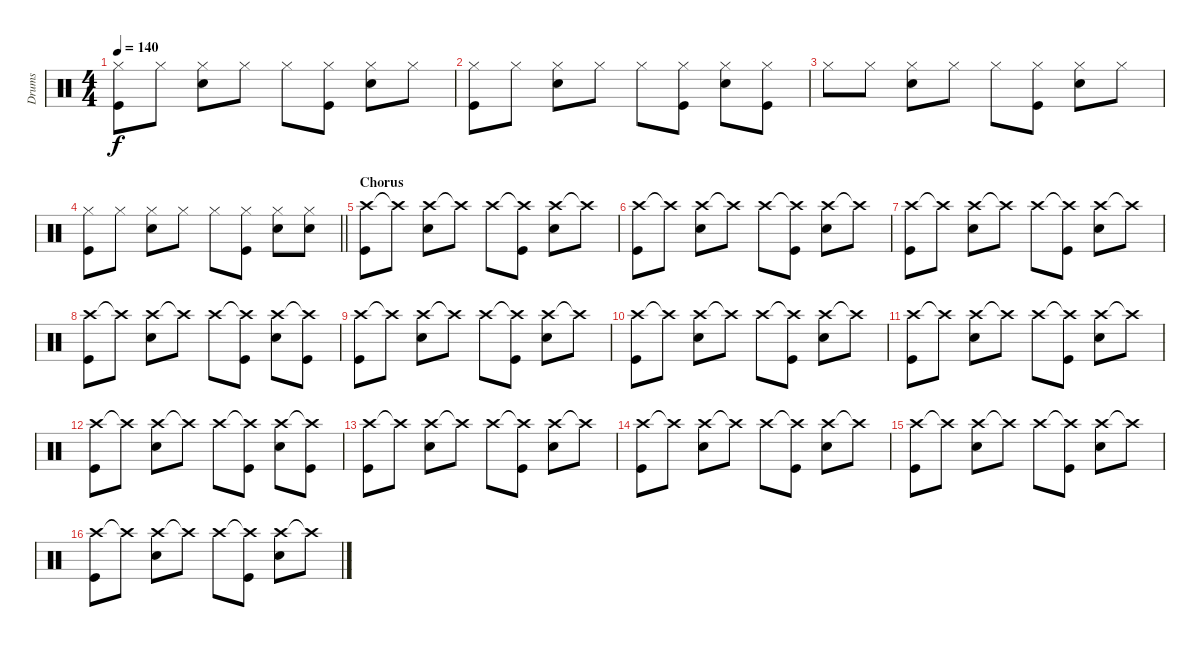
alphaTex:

\track ("Drums" "Drums") {instrument percussion}
\staff {score}
\articulation defaults
\ts (4 4)
\tempo 140
\clef neutral
\ks c
("Hi-Hat (closed)" "Kick (hit)").8{dy f} "Hi-Hat (closed)".8 ("Hi-Hat (closed)" "Electric Snare (hit)").8 "Hi-Hat (closed)".8 "Hi-Hat (closed)".8 ("Hi-Hat (closed)" "Kick (hit)").8 ("Hi-Hat (closed)" "Electric Snare (hit)").8 "Hi-Hat (closed)".8 |
("Hi-Hat (closed)" "Kick (hit)").8 "Hi-Hat (closed)".8 ("Hi-Hat (closed)" "Electric Snare (hit)").8 "Hi-Hat (closed)".8 "Hi-Hat (closed)".8 ("Hi-Hat (closed)" "Kick (hit)").8 ("Hi-Hat (closed)" "Electric Snare (hit)").8 ("Hi-Hat (closed)" "Kick (hit)").8 |
"Hi-Hat (closed)".8 "Hi-Hat (closed)".8 ("Hi-Hat (closed)" "Electric Snare (hit)").8 "Hi-Hat (closed)".8 "Hi-Hat (closed)".8 ("Hi-Hat (closed)" "Kick (hit)").8 ("Hi-Hat (closed)" "Electric Snare (hit)").8 "Hi-Hat (closed)".8 |
\barLineRight lightlight
("Hi-Hat (closed)" "Kick (hit)").8 "Hi-Hat (closed)".8 ("Hi-Hat (closed)" "Electric Snare (hit)").8 "Hi-Hat (closed)".8 "Hi-Hat (closed)".8 ("Hi-Hat (closed)" "Kick (hit)").8 ("Hi-Hat (closed)" "Electric Snare (hit)").8 ("Hi-Hat (closed)" "Electric Snare (hit)").8 |
\section ("" "Chorus")
("Crash high (hit)" "Kick (hit)").8 "Crash high (hit)"{t}.8 ("Crash high (hit)" "Snare (hit) 2").8 "Crash high (hit)"{t}.8 "Crash high (hit)".8 ("Crash high (hit)"{t} "Kick (hit)").8 ("Crash high (hit)" "Snare (hit) 2").8 "Crash high (hit)"{t}.8 |
("Crash high (hit)" "Kick (hit)").8 "Crash high (hit)"{t}.8 ("Crash high (hit)" "Snare (hit) 2").8 "Crash high (hit)"{t}.8 "Crash high (hit)".8 ("Crash high (hit)"{t} "Kick (hit)").8 ("Crash high (hit)" "Snare (hit) 2").8 "Crash high (hit)"{t}.8 |
("Crash high (hit)" "Kick (hit)").8 "Crash high (hit)"{t}.8 ("Crash high (hit)" "Snare (hit) 2").8 "Crash high (hit)"{t}.8 "Crash high (hit)".8 ("Crash high (hit)"{t} "Kick (hit)").8 ("Crash high (hit)" "Snare (hit) 2").8 "Crash high (hit)"{t}.8 |
("Crash high (hit)" "Kick (hit)").8 "Crash high (hit)"{t}.8 ("Crash high (hit)" "Snare (hit) 2").8 "Crash high (hit)"{t}.8 "Crash high (hit)".8 ("Crash high (hit)"{t} "Kick (hit)").8 ("Crash high (hit)" "Snare (hit) 2").8 ("Crash high (hit)"{t} "Kick (hit)").8 |
("Crash high (hit)" "Kick (hit)").8 "Crash high (hit)"{t}.8 ("Crash high (hit)" "Snare (hit) 2").8 "Crash high (hit)"{t}.8 "Crash high (hit)".8 ("Crash high (hit)"{t} "Kick (hit)").8 ("Crash high (hit)" "Snare (hit) 2").8 "Crash high (hit)"{t}.8 |
("Crash high (hit)" "Kick (hit)").8 "Crash high (hit)"{t}.8 ("Crash high (hit)" "Snare (hit) 2").8 "Crash high (hit)"{t}.8 "Crash high (hit)".8 ("Crash high (hit)"{t} "Kick (hit)").8 ("Crash high (hit)" "Snare (hit) 2").8 "Crash high (hit)"{t}.8 |
("Crash high (hit)" "Kick (hit)").8 "Crash high (hit)"{t}.8 ("Crash high (hit)" "Snare (hit) 2").8 "Crash high (hit)"{t}.8 "Crash high (hit)".8 ("Crash high (hit)"{t} "Kick (hit)").8 ("Crash high (hit)" "Snare (hit) 2").8 "Crash high (hit)"{t}.8 |
("Crash high (hit)" "Kick (hit)").8 "Crash high (hit)"{t}.8 ("Crash high (hit)" "Snare (hit) 2").8 "Crash high (hit)"{t}.8 "Crash high (hit)".8 ("Crash high (hit)"{t} "Kick (hit)").8 ("Crash high (hit)" "Snare (hit) 2").8 ("Crash high (hit)"{t} "Kick (hit)").8 |
("Crash high (hit)" "Kick (hit)").8 "Crash high (hit)"{t}.8 ("Crash high (hit)" "Snare (hit) 2").8 "Crash high (hit)"{t}.8 "Crash high (hit)".8 ("Crash high (hit)"{t} "Kick (hit)").8 ("Crash high (hit)" "Snare (hit) 2").8 "Crash high (hit)"{t}.8 |
("Crash high (hit)" "Kick (hit)").8 "Crash high (hit)"{t}.8 ("Crash high (hit)" "Snare (hit) 2").8 "Crash high (hit)"{t}.8 "Crash high (hit)".8 ("Crash high (hit)"{t} "Kick (hit)").8 ("Crash high (hit)" "Snare (hit) 2").8 "Crash high (hit)"{t}.8 |
("Crash high (hit)" "Kick (hit)").8 "Crash high (hit)"{t}.8 ("Crash high (hit)" "Snare (hit) 2").8 "Crash high (hit)"{t}.8 "Crash high (hit)".8 ("Crash high (hit)"{t} "Kick (hit)").8 ("Crash high (hit)" "Snare (hit) 2").8 "Crash high (hit)"{t}.8 |
("Crash high (hit)" "Kick (hit)").8 "Crash high (hit)"{t}.8 ("Crash high (hit)" "Snare (hit) 2").8 "Crash high (hit)"{t}.8 "Crash high (hit)".8 ("Crash high (hit)"{t} "Kick (hit)").8 ("Crash high (hit)" "Snare (hit) 2").8 "Crash high (hit)"{t}.8
